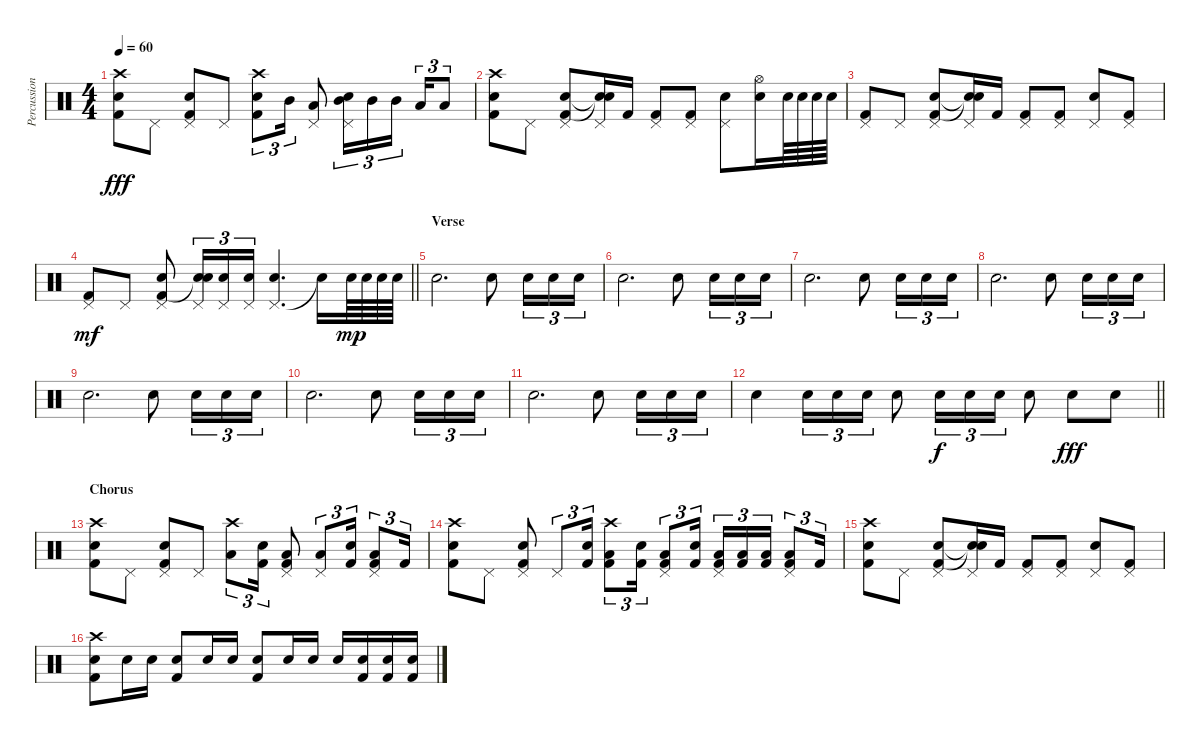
\track ("Percussioni" "Percussion") {instrument percussion}
\staff {score}
\articulation defaults
\ts (4 4)
\tempo 60
\clef neutral
\ks c
("Crash high (hit)" "Snare (hit) 2" "Kick (hit) 2").8{dy fff} "Pedal Hi-Hat (hit)".8 ("Pedal Hi-Hat (hit)" "Snare (hit) 2" "Kick (hit) 2").8 "Pedal Hi-Hat (hit)".8 ("Crash high (hit)" "Snare (hit) 2" "Kick (hit) 2").8{tu (3 2)} "Mid Tom (hit)".16{tu (3 2)} ("Pedal Hi-Hat (hit)" "Low Tom (hit)").8 ("Pedal Hi-Hat (hit)" "Mid Tom (hit)" "Snare (hit) 2").16{tu (3 2)} "Mid Tom (hit)".16{tu (3 2)} "Mid Tom (hit)".16{tu (3 2) beam splitsecondary} "Low Tom (hit)".16{tu (3 2)} "Low Tom (hit)".8{tu (3 2)} |
("Crash high (hit)" "Snare (hit) 2" "Kick (hit) 2").8 "Pedal Hi-Hat (hit)".8 ("Pedal Hi-Hat (hit)" "Snare (hit) 2" "Kick (hit) 2").8 ("Pedal Hi-Hat (hit)" "Snare (hit)"{t} "Snare (hit)"{t}).16 "Kick (hit) 2".16 ("Pedal Hi-Hat (hit)" "Kick (hit) 2").8 ("Pedal Hi-Hat (hit)" "Kick (hit) 2").8 ("Pedal Hi-Hat (hit)" "Snare (hit) 2").8 ("Hi-Hat (open)" "Snare (hit) 2").16 "Snare (hit) 2".64 "Snare (hit) 2".64 "Snare (hit) 2".64 "Snare (hit) 2".64 |
("Pedal Hi-Hat (hit)" "Kick (hit) 2").8 "Pedal Hi-Hat (hit)".8 ("Pedal Hi-Hat (hit)" "Snare (hit) 2" "Kick (hit) 2").8 ("Pedal Hi-Hat (hit)" "Snare (hit)"{t} "Snare (hit)"{t}).16 "Kick (hit) 2".16 ("Pedal Hi-Hat (hit)" "Kick (hit) 2").8 ("Pedal Hi-Hat (hit)" "Kick (hit) 2").8 ("Pedal Hi-Hat (hit)" "Snare (hit) 2").8 ("Pedal Hi-Hat (hit)" "Kick (hit) 2").8 |
\barLineRight lightlight
("Pedal Hi-Hat (hit)" "Kick (hit) 2").8{dy mf} "Pedal Hi-Hat (hit)".8 ("Pedal Hi-Hat (hit)" "Snare (hit) 2" "Kick (hit) 2").8 ("Pedal Hi-Hat (hit)" "Snare (hit) 2" "Snare (hit)"{t}).16{tu (3 2)} ("Pedal Hi-Hat (hit)" "Snare (hit) 2").16{tu (3 2)} ("Pedal Hi-Hat (hit)" "Snare (hit) 2").16{tu (3 2)} ("Pedal Hi-Hat (hit)" "Snare (hit) 2").4{d} "Snare (hit) 2"{t}.16 "Snare (hit) 2".64{dy mp} "Snare (hit) 2".64 "Snare (hit) 2".64 "Snare (hit) 2".64 |
\section ("" "Verse")
"Snare (hit) 2".2{d} "Snare (hit) 2".8 "Snare (hit) 2".16{tu (3 2)} "Snare (hit) 2".16{tu (3 2)} "Snare (hit) 2".16{tu (3 2)} |
"Snare (hit) 2".2{d} "Snare (hit) 2".8 "Snare (hit) 2".16{tu (3 2)} "Snare (hit) 2".16{tu (3 2)} "Snare (hit) 2".16{tu (3 2)} |
"Snare (hit) 2".2{d} "Snare (hit) 2".8 "Snare (hit) 2".16{tu (3 2)} "Snare (hit) 2".16{tu (3 2)} "Snare (hit) 2".16{tu (3 2)} |
"Snare (hit) 2".2{d} "Snare (hit) 2".8 "Snare (hit) 2".16{tu (3 2)} "Snare (hit) 2".16{tu (3 2)} "Snare (hit) 2".16{tu (3 2)} |
"Snare (hit) 2".2{d} "Snare (hit) 2".8 "Snare (hit) 2".16{tu (3 2)} "Snare (hit) 2".16{tu (3 2)} "Snare (hit) 2".16{tu (3 2)} |
"Snare (hit) 2".2{d} "Snare (hit) 2".8 "Snare (hit) 2".16{tu (3 2)} "Snare (hit) 2".16{tu (3 2)} "Snare (hit) 2".16{tu (3 2)} |
"Snare (hit) 2".2{d} "Snare (hit) 2".8 "Snare (hit) 2".16{tu (3 2)} "Snare (hit) 2".16{tu (3 2)} "Snare (hit) 2".16{tu (3 2)} |
\barLineRight lightlight "Snare (hit) 2".4 "Snare (hit) 2".16{tu (3 2)} "Snare (hit) 2".16{tu (3 2)} "Snare (hit) 2".16{tu (3 2)} "Snare (hit) 2".8 "Snare (hit) 2".16{tu (3 2) dy f} "Snare (hit) 2".16{tu (3 2)} "Snare (hit) 2".16{tu (3 2)} "Snare (hit) 2".8 "Snare (hit) 2".8{dy fff} "Snare (hit) 2".8
|
\section ("" "Chorus")
("Crash high (hit)" "Snare (hit) 2" "Kick (hit) 2").8 "Pedal Hi-Hat (hit)".8 ("Pedal Hi-Hat (hit)" "Snare (hit) 2" "Kick (hit) 2").8 "Pedal Hi-Hat (hit)".8 ("Crash high (hit)" "Low Tom (hit)").8{tu (3 2)} ("Kick (hit) 2" "Snare (hit) 2").16{tu (3 2)} ("Pedal Hi-Hat (hit)" "Kick (hit) 2" "Low Tom (hit)").8 ("Pedal Hi-Hat (hit)" "Low Tom (hit)").8{tu (3 2)} ("Kick (hit) 2" "Snare (hit) 2").16{tu (3 2)} ("Pedal Hi-Hat (hit)" "Kick (hit) 2" "Low Tom (hit)").8{tu (3 2)} "Kick (hit) 2".16{tu (3 2)} |
("Crash high (hit)" "Snare (hit) 2" "Kick (hit) 2").8 "Pedal Hi-Hat (hit)".8 ("Pedal Hi-Hat (hit)" "Snare (hit) 2" "Kick (hit) 2").8 "Pedal Hi-Hat (hit)".8{tu (3 2)} ("Snare (hit) 2" "Kick (hit) 2").16{tu (3 2)} ("Crash high (hit)" "Low Tom (hit)" "Kick (hit) 2").8{tu (3 2)} ("Snare (hit) 2" "Kick (hit) 2").16{tu (3 2)} ("Pedal Hi-Hat (hit)" "Low Tom (hit)" "Kick (hit) 2").8{tu (3 2)} ("Snare (hit) 2" "Kick (hit) 2").16{tu (3 2)} ("Pedal Hi-Hat (hit)" "Low Tom (hit)" "Kick (hit) 2").16{tu (3 2)} ("Low Tom (hit)" "Kick (hit) 2").16{tu (3 2)} ("Low Tom (hit)" "Kick (hit) 2").16{tu (3 2)} ("Pedal Hi-Hat (hit)" "Low Tom (hit)" "Kick (hit) 2").8{tu (3 2)} "Kick (hit) 2".16{tu (3 2)} |
("Crash high (hit)" "Snare (hit) 2" "Kick (hit) 2").8 "Pedal Hi-Hat (hit)".8 ("Pedal Hi-Hat (hit)" "Snare (hit) 2" "Kick (hit) 2").8 ("Pedal Hi-Hat (hit)" "Snare (hit)"{t} "Snare (hit)"{t}).16 "Kick (hit) 2".16 ("Pedal Hi-Hat (hit)" "Kick (hit) 2").8 ("Pedal Hi-Hat (hit)" "Kick (hit) 2").8 ("Pedal Hi-Hat (hit)" "Snare (hit) 2").8 ("Pedal Hi-Hat (hit)" "Kick (hit) 2").8 |
("Crash high (hit)" "Snare (hit) 2" "Kick (hit) 2").8 "Snare (hit) 2".16 "Snare (hit) 2".16 ("Snare (hit) 2" "Kick (hit) 2").8 "Snare (hit) 2".16 "Snare (hit) 2".16 ("Snare (hit) 2" "Kick (hit) 2").8 "Snare (hit) 2".16 "Snare (hit) 2".16 "Snare (hit) 2".16 ("Snare (hit) 2" "Kick (hit) 2").16 ("Snare (hit) 2" "Kick (hit) 2").16 ("Snare (hit) 2" "Kick (hit) 2").16
